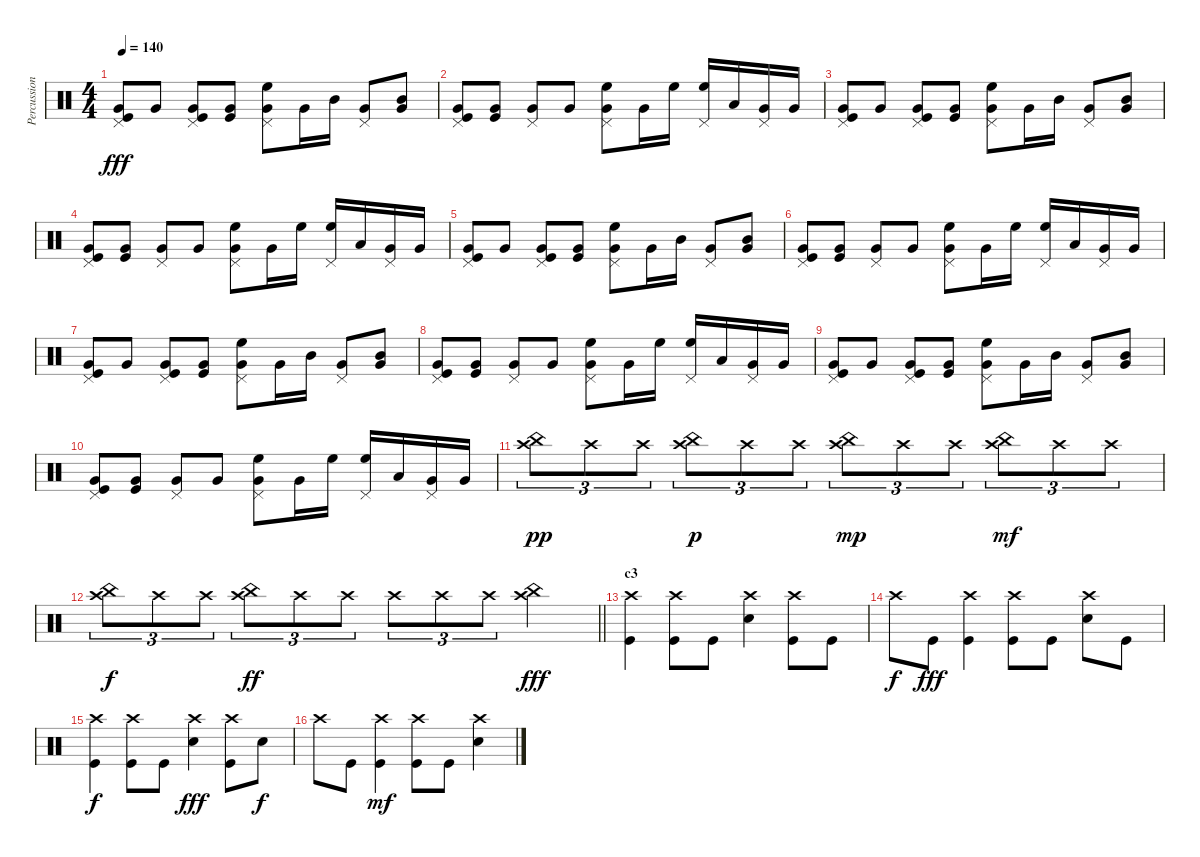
\track ("Percussion" "Percussion") {instrument percussion}
\staff {score}
\articulation defaults
\ts (4 4)
\tempo 140
\clef neutral
\ks c
("Kick (hit)" "Very Low Tom (hit)" "Pedal Hi-Hat (hit)").8{dy fff} "Very Low Tom (hit)".8 ("Very Low Tom (hit)" "Kick (hit)" "Pedal Hi-Hat (hit)").8 ("Kick (hit)" "Very Low Tom (hit)").8 ("Very Low Tom (hit)" "High Floor Tom (hit)" "Pedal Hi-Hat (hit)").8 "Very Low Tom (hit)".16 "Mid Tom (hit)".16 ("Very Low Tom (hit)" "Pedal Hi-Hat (hit)").8 ("Very Low Tom (hit)" "Mid Tom (hit)").8 |
("Very Low Tom (hit)" "Kick (hit)" "Pedal Hi-Hat (hit)").8 ("Very Low Tom (hit)" "Kick (hit)").8 ("Very Low Tom (hit)" "Pedal Hi-Hat (hit)").8 "Very Low Tom (hit)".8 ("Very Low Tom (hit)" "High Floor Tom (hit)" "Pedal Hi-Hat (hit)").8 "Very Low Tom (hit)".16 "High Floor Tom (hit)".16 ("High Floor Tom (hit)" "Pedal Hi-Hat (hit)").16 "Low Tom (hit)".16 ("Very Low Tom (hit)" "Pedal Hi-Hat (hit)").16 "Very Low Tom (hit)".16 |
("Kick (hit)" "Very Low Tom (hit)" "Pedal Hi-Hat (hit)").8 "Very Low Tom (hit)".8 ("Very Low Tom (hit)" "Kick (hit)" "Pedal Hi-Hat (hit)").8 ("Kick (hit)" "Very Low Tom (hit)").8 ("Very Low Tom (hit)" "High Floor Tom (hit)" "Pedal Hi-Hat (hit)").8 "Very Low Tom (hit)".16 "Mid Tom (hit)".16 ("Very Low Tom (hit)" "Pedal Hi-Hat (hit)").8 ("Very Low Tom (hit)" "Mid Tom (hit)").8 |
("Very Low Tom (hit)" "Kick (hit)" "Pedal Hi-Hat (hit)").8 ("Very Low Tom (hit)" "Kick (hit)").8 ("Very Low Tom (hit)" "Pedal Hi-Hat (hit)").8 "Very Low Tom (hit)".8 ("Very Low Tom (hit)" "High Floor Tom (hit)" "Pedal Hi-Hat (hit)").8 "Very Low Tom (hit)".16 "High Floor Tom (hit)".16 ("High Floor Tom (hit)" "Pedal Hi-Hat (hit)").16 "Low Tom (hit)".16 ("Very Low Tom (hit)" "Pedal Hi-Hat (hit)").16 "Very Low Tom (hit)".16 |
("Kick (hit)" "Very Low Tom (hit)" "Pedal Hi-Hat (hit)").8 "Very Low Tom (hit)".8 ("Very Low Tom (hit)" "Kick (hit)" "Pedal Hi-Hat (hit)").8 ("Kick (hit)" "Very Low Tom (hit)").8 ("Very Low Tom (hit)" "High Floor Tom (hit)" "Pedal Hi-Hat (hit)").8 "Very Low Tom (hit)".16 "Mid Tom (hit)".16 ("Very Low Tom (hit)" "Pedal Hi-Hat (hit)").8 ("Very Low Tom (hit)" "Mid Tom (hit)").8 |
("Very Low Tom (hit)" "Kick (hit)" "Pedal Hi-Hat (hit)").8 ("Very Low Tom (hit)" "Kick (hit)").8 ("Very Low Tom (hit)" "Pedal Hi-Hat (hit)").8 "Very Low Tom (hit)".8 ("Very Low Tom (hit)" "High Floor Tom (hit)" "Pedal Hi-Hat (hit)").8 "Very Low Tom (hit)".16 "High Floor Tom (hit)".16 ("High Floor Tom (hit)" "Pedal Hi-Hat (hit)").16 "Low Tom (hit)".16 ("Very Low Tom (hit)" "Pedal Hi-Hat (hit)").16 "Very Low Tom (hit)".16 |
("Kick (hit)" "Very Low Tom (hit)" "Pedal Hi-Hat (hit)").8 "Very Low Tom (hit)".8 ("Very Low Tom (hit)" "Kick (hit)" "Pedal Hi-Hat (hit)").8 ("Kick (hit)" "Very Low Tom (hit)").8 ("Very Low Tom (hit)" "High Floor Tom (hit)" "Pedal Hi-Hat (hit)").8 "Very Low Tom (hit)".16 "Mid Tom (hit)".16 ("Very Low Tom (hit)" "Pedal Hi-Hat (hit)").8 ("Very Low Tom (hit)" "Mid Tom (hit)").8 |
("Very Low Tom (hit)" "Kick (hit)" "Pedal Hi-Hat (hit)").8 ("Very Low Tom (hit)" "Kick (hit)").8 ("Very Low Tom (hit)" "Pedal Hi-Hat (hit)").8 "Very Low Tom (hit)".8 ("Very Low Tom (hit)" "High Floor Tom (hit)" "Pedal Hi-Hat (hit)").8 "Very Low Tom (hit)".16 "High Floor Tom (hit)".16 ("High Floor Tom (hit)" "Pedal Hi-Hat (hit)").16 "Low Tom (hit)".16 ("Very Low Tom (hit)" "Pedal Hi-Hat (hit)").16 "Very Low Tom (hit)".16 |
("Kick (hit)" "Very Low Tom (hit)" "Pedal Hi-Hat (hit)").8 "Very Low Tom (hit)".8 ("Very Low Tom (hit)" "Kick (hit)" "Pedal Hi-Hat (hit)").8 ("Kick (hit)" "Very Low Tom (hit)").8 ("Very Low Tom (hit)" "High Floor Tom (hit)" "Pedal Hi-Hat (hit)").8 "Very Low Tom (hit)".16 "Mid Tom (hit)".16 ("Very Low Tom (hit)" "Pedal Hi-Hat (hit)").8 ("Very Low Tom (hit)" "Mid Tom (hit)").8 |
("Very Low Tom (hit)" "Kick (hit)" "Pedal Hi-Hat (hit)").8 ("Very Low Tom (hit)" "Kick (hit)").8 ("Very Low Tom (hit)" "Pedal Hi-Hat (hit)").8 "Very Low Tom (hit)".8 ("Very Low Tom (hit)" "High Floor Tom (hit)" "Pedal Hi-Hat (hit)").8 "Very Low Tom (hit)".16 "High Floor Tom (hit)".16 ("High Floor Tom (hit)" "Pedal Hi-Hat (hit)").16 "Low Tom (hit)".16 ("Very Low Tom (hit)" "Pedal Hi-Hat (hit)").16 "Very Low Tom (hit)".16 |
("China (hit)" "Crash high (hit)").8{tu (3 2) dy pp} "Crash high (hit)".8{tu (3 2)} "Crash high (hit)".8{tu (3 2)} ("Crash high (hit)" "China (hit)").8{tu (3 2) dy p} "Crash high (hit)".8{tu (3 2)} "Crash high (hit)".8{tu (3 2)} ("Crash high (hit)" "China (hit)").8{tu (3 2) dy mp} "Crash high (hit)".8{tu (3 2)} "Crash high (hit)".8{tu (3 2)} ("Crash high (hit)" "China (hit)").8{tu (3 2) dy mf} "Crash high (hit)".8{tu (3 2)} "Crash high (hit)".8{tu (3 2)} |
\barLineRight lightlight
("Crash high (hit)" "China (hit)").8{tu (3 2) dy f} "Crash high (hit)".8{tu (3 2)} "Crash high (hit)".8{tu (3 2)} ("Crash high (hit)" "China (hit)").8{tu (3 2) dy ff} "Crash high (hit)".8{tu (3 2)} "Crash high (hit)".8{tu (3 2)} "Crash high (hit)".8{tu (3 2)} "Crash high (hit)".8{tu (3 2)} "Crash high (hit)".8{tu (3 2)} ("Crash high (hit)" "China (hit)").4{dy fff} |
\section ("" "c3")
("Kick (hit)" "Crash high (hit)").4 ("Kick (hit)" "Crash high (hit)").8 "Kick (hit)".8 ("Crash high (hit)" "Snare (hit) 2").4 ("Crash high (hit)" "Kick (hit)").8 "Kick (hit)".8 |
"Crash high (hit)".8{dy f} "Kick (hit)".8{dy fff} ("Kick (hit)" "Crash high (hit)").4 ("Kick (hit)" "Crash high (hit)").8 "Kick (hit)".8 ("Crash high (hit)" "Snare (hit) 2").8 "Kick (hit)".8 |
("Crash high (hit)" "Kick (hit)").4{dy f} ("Crash high (hit)" "Kick (hit)").8 "Kick (hit)".8 ("Crash high (hit)" "Snare (hit) 2").4{dy fff} ("Crash high (hit)" "Kick (hit)").8 "Snare (hit) 2".8{dy f} |
"Crash high (hit)".8 "Kick (hit)".8 ("Crash high (hit)" "Kick (hit)").4{dy mf} ("Crash high (hit)" "Kick (hit)").8 "Kick (hit)".8 ("Crash high (hit)" "Snare (hit) 2").4
